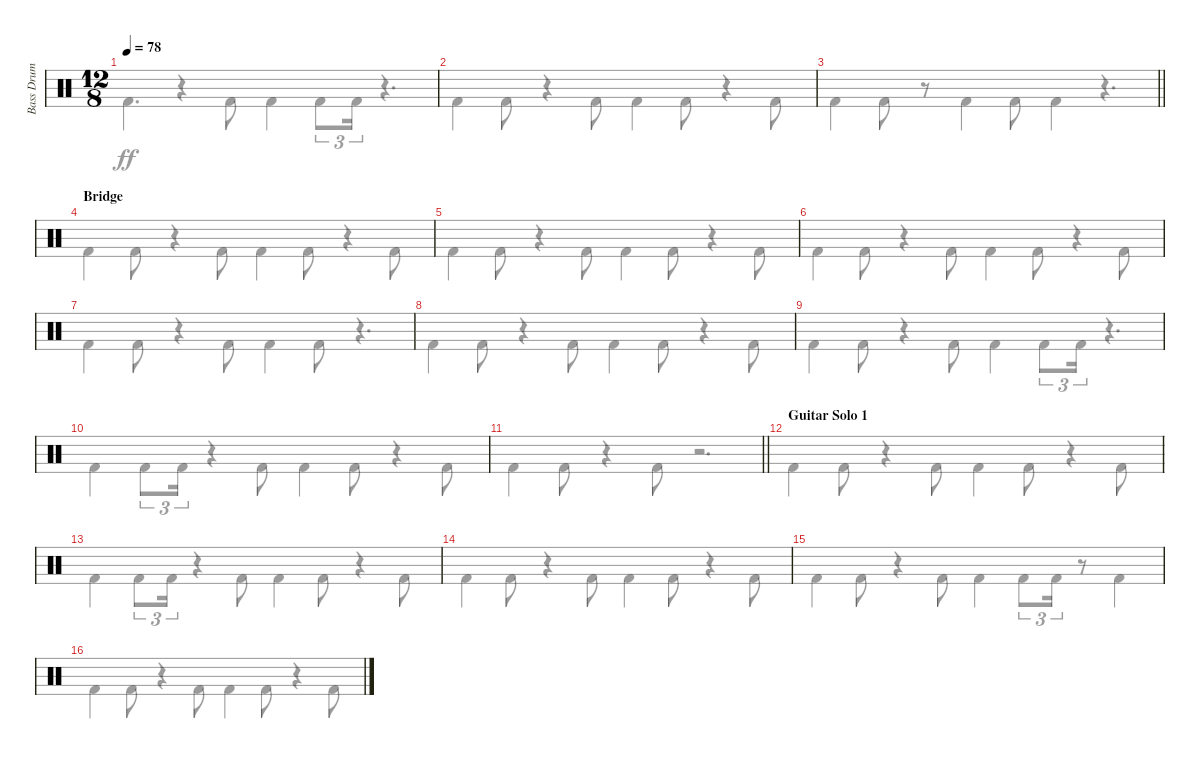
\track ("Bass Drum" "Bass Drum") {instrument percussion}
\staff {score}
\articulation defaults
\voice
\ts (12 8)
\tempo 78
\clef neutral
\ks c
|
|
\barLineRight lightlight
|
\section ("" "Bridge")
|
|
|
|
|
|
|
\barLineRight lightlight
|
\section ("" "Guitar Solo 1")
|
|
|
|
\voice
\clef neutral
\ks c "Kick (hit) 2".4{d dy ff}
r.4 "Kick (hit) 2".8 "Kick (hit) 2".4 "Kick (hit) 2".8{tu (3 2)} "Kick (hit) 2".16{tu (3 2)} r.4{d} |
"Kick (hit) 2".4 "Kick (hit) 2".8 r.4 "Kick (hit) 2".8 "Kick (hit) 2".4 "Kick (hit) 2".8 r.4 "Kick (hit) 2".8 |
\barLineRight lightlight "Kick (hit) 2".4 "Kick (hit) 2".8
r.8 "Kick (hit) 2".4 "Kick (hit) 2".8 "Kick (hit) 2".4 r.4{d} |
"Kick (hit) 2".4 "Kick (hit) 2".8 r.4 "Kick (hit) 2".8 "Kick (hit) 2".4 "Kick (hit) 2".8 r.4 "Kick (hit) 2".8 |
"Kick (hit) 2".4 "Kick (hit) 2".8 r.4 "Kick (hit) 2".8 "Kick (hit) 2".4 "Kick (hit) 2".8 r.4 "Kick (hit) 2".8 |
"Kick (hit) 2".4 "Kick (hit) 2".8 r.4 "Kick (hit) 2".8 "Kick (hit) 2".4 "Kick (hit) 2".8 r.4 "Kick (hit) 2".8 |
"Kick (hit) 2".4 "Kick (hit) 2".8 r.4 "Kick (hit) 2".8 "Kick (hit) 2".4 "Kick (hit) 2".8 r.4{d} |
"Kick (hit) 2".4 "Kick (hit) 2".8 r.4 "Kick (hit) 2".8 "Kick (hit) 2".4 "Kick (hit) 2".8 r.4 "Kick (hit) 2".8 |
"Kick (hit) 2".4 "Kick (hit) 2".8 r.4 "Kick (hit) 2".8 "Kick (hit) 2".4 "Kick (hit) 2".8{tu (3 2)} "Kick (hit) 2".16{tu (3 2)} r.4{d} |
"Kick (hit) 2".4 "Kick (hit) 2".8{tu (3 2)} "Kick (hit) 2".16{tu (3 2)} r.4 "Kick (hit) 2".8 "Kick (hit) 2".4 "Kick (hit) 2".8 r.4 "Kick (hit) 2".8 |
\barLineRight lightlight "Kick (hit) 2".4 "Kick (hit) 2".8
r.4 "Kick (hit) 2".8 r.2{d} |
"Kick (hit) 2".4 "Kick (hit) 2".8 r.4 "Kick (hit) 2".8 "Kick (hit) 2".4 "Kick (hit) 2".8 r.4 "Kick (hit) 2".8 |
"Kick (hit) 2".4 "Kick (hit) 2".8{tu (3 2)} "Kick (hit) 2".16{tu (3 2)} r.4 "Kick (hit) 2".8 "Kick (hit) 2".4 "Kick (hit) 2".8 r.4 "Kick (hit) 2".8 |
"Kick (hit) 2".4 "Kick (hit) 2".8 r.4 "Kick (hit) 2".8 "Kick (hit) 2".4 "Kick (hit) 2".8 r.4 "Kick (hit) 2".8 |
"Kick (hit) 2".4 "Kick (hit) 2".8 r.4 "Kick (hit) 2".8 "Kick (hit) 2".4 "Kick (hit) 2".8{tu (3 2)} "Kick (hit) 2".16{tu (3 2)} r.8 "Kick (hit) 2".4 |
"Kick (hit) 2".4 "Kick (hit) 2".8 r.4 "Kick (hit) 2".8 "Kick (hit) 2".4 "Kick (hit) 2".8 r.4 "Kick (hit) 2".8
